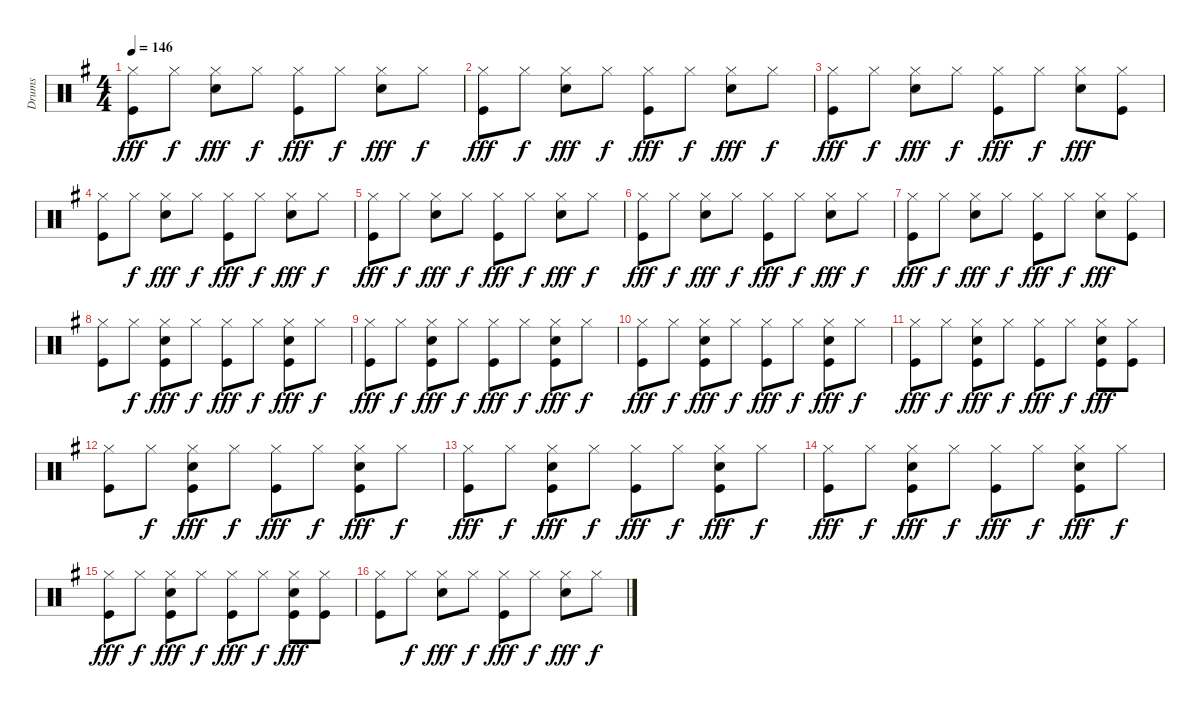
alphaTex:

\track ("Drums" "Drums") {instrument percussion}
\staff {score}
\articulation defaults
\ts (4 4)
\tempo 146
\clef neutral
\ks g
("Hi-Hat (closed)" "Kick (hit)").8{dy fff} "Hi-Hat (closed)".8{dy f} ("Hi-Hat (closed)" "Snare (hit) 2").8{dy fff} "Hi-Hat (closed)".8{dy f} ("Hi-Hat (closed)" "Kick (hit)").8{dy fff} "Hi-Hat (closed)".8{dy f} ("Hi-Hat (closed)" "Snare (hit) 2").8{dy fff} "Hi-Hat (closed)".8{dy f} |
("Hi-Hat (closed)" "Kick (hit)").8{dy fff} "Hi-Hat (closed)".8{dy f} ("Hi-Hat (closed)" "Snare (hit) 2").8{dy fff} "Hi-Hat (closed)".8{dy f} ("Hi-Hat (closed)" "Kick (hit)").8{dy fff} "Hi-Hat (closed)".8{dy f} ("Hi-Hat (closed)" "Snare (hit) 2").8{dy fff} "Hi-Hat (closed)".8{dy f} |
("Hi-Hat (closed)" "Kick (hit)").8{dy fff} "Hi-Hat (closed)".8{dy f} ("Hi-Hat (closed)" "Snare (hit) 2").8{dy fff} "Hi-Hat (closed)".8{dy f} ("Hi-Hat (closed)" "Kick (hit)").8{dy fff} "Hi-Hat (closed)".8{dy f} ("Hi-Hat (closed)" "Snare (hit) 2").8{dy fff} ("Hi-Hat (closed)" "Kick (hit)").8 |
("Hi-Hat (closed)" "Kick (hit)").8 "Hi-Hat (closed)".8{dy f} ("Hi-Hat (closed)" "Snare (hit) 2").8{dy fff} "Hi-Hat (closed)".8{dy f} ("Hi-Hat (closed)" "Kick (hit)").8{dy fff} "Hi-Hat (closed)".8{dy f} ("Hi-Hat (closed)" "Snare (hit) 2").8{dy fff} "Hi-Hat (closed)".8{dy f} |
("Hi-Hat (closed)" "Kick (hit)").8{dy fff} "Hi-Hat (closed)".8{dy f} ("Hi-Hat (closed)" "Snare (hit) 2").8{dy fff} "Hi-Hat (closed)".8{dy f} ("Hi-Hat (closed)" "Kick (hit)").8{dy fff} "Hi-Hat (closed)".8{dy f} ("Hi-Hat (closed)" "Snare (hit) 2").8{dy fff} "Hi-Hat (closed)".8{dy f} |
("Hi-Hat (closed)" "Kick (hit)").8{dy fff} "Hi-Hat (closed)".8{dy f} ("Hi-Hat (closed)" "Snare (hit) 2").8{dy fff} "Hi-Hat (closed)".8{dy f} ("Hi-Hat (closed)" "Kick (hit)").8{dy fff} "Hi-Hat (closed)".8{dy f} ("Hi-Hat (closed)" "Snare (hit) 2").8{dy fff} "Hi-Hat (closed)".8{dy f} |
("Hi-Hat (closed)" "Kick (hit)").8{dy fff} "Hi-Hat (closed)".8{dy f} ("Hi-Hat (closed)" "Snare (hit) 2").8{dy fff} "Hi-Hat (closed)".8{dy f} ("Hi-Hat (closed)" "Kick (hit)").8{dy fff} "Hi-Hat (closed)".8{dy f} ("Hi-Hat (closed)" "Snare (hit) 2").8{dy fff} ("Hi-Hat (closed)" "Kick (hit)").8 |
("Hi-Hat (closed)" "Kick (hit)").8 "Hi-Hat (closed)".8{dy f} ("Hi-Hat (closed)" "Snare (hit) 2" "Kick (hit)").8{dy fff} "Hi-Hat (closed)".8{dy f} ("Hi-Hat (closed)" "Kick (hit)").8{dy fff} "Hi-Hat (closed)".8{dy f} ("Hi-Hat (closed)" "Snare (hit) 2" "Kick (hit)").8{dy fff} "Hi-Hat (closed)".8{dy f} |
("Hi-Hat (closed)" "Kick (hit)").8{dy fff} "Hi-Hat (closed)".8{dy f} ("Hi-Hat (closed)" "Snare (hit) 2" "Kick (hit)").8{dy fff} "Hi-Hat (closed)".8{dy f} ("Hi-Hat (closed)" "Kick (hit)").8{dy fff} "Hi-Hat (closed)".8{dy f} ("Hi-Hat (closed)" "Snare (hit) 2" "Kick (hit)").8{dy fff} "Hi-Hat (closed)".8{dy f} |
("Hi-Hat (closed)" "Kick (hit)").8{dy fff} "Hi-Hat (closed)".8{dy f} ("Hi-Hat (closed)" "Snare (hit) 2" "Kick (hit)").8{dy fff} "Hi-Hat (closed)".8{dy f} ("Hi-Hat (closed)" "Kick (hit)").8{dy fff} "Hi-Hat (closed)".8{dy f} ("Hi-Hat (closed)" "Snare (hit) 2" "Kick (hit)").8{dy fff} "Hi-Hat (closed)".8{dy f} |
("Hi-Hat (closed)" "Kick (hit)").8{dy fff} "Hi-Hat (closed)".8{dy f} ("Hi-Hat (closed)" "Snare (hit) 2" "Kick (hit)").8{dy fff} "Hi-Hat (closed)".8{dy f} ("Hi-Hat (closed)" "Kick (hit)").8{dy fff} "Hi-Hat (closed)".8{dy f} ("Hi-Hat (closed)" "Snare (hit) 2" "Kick (hit)").8{dy fff} ("Hi-Hat (closed)" "Kick (hit)").8 |
("Hi-Hat (closed)" "Kick (hit)").8 "Hi-Hat (closed)".8{dy f} ("Hi-Hat (closed)" "Snare (hit) 2" "Kick (hit)").8{dy fff} "Hi-Hat (closed)".8{dy f} ("Hi-Hat (closed)" "Kick (hit)").8{dy fff} "Hi-Hat (closed)".8{dy f} ("Hi-Hat (closed)" "Snare (hit) 2" "Kick (hit)").8{dy fff} "Hi-Hat (closed)".8{dy f} |
("Hi-Hat (closed)" "Kick (hit)").8{dy fff} "Hi-Hat (closed)".8{dy f} ("Hi-Hat (closed)" "Snare (hit) 2" "Kick (hit)").8{dy fff} "Hi-Hat (closed)".8{dy f} ("Hi-Hat (closed)" "Kick (hit)").8{dy fff} "Hi-Hat (closed)".8{dy f} ("Hi-Hat (closed)" "Snare (hit) 2" "Kick (hit)").8{dy fff} "Hi-Hat (closed)".8{dy f} |
("Hi-Hat (closed)" "Kick (hit)").8{dy fff} "Hi-Hat (closed)".8{dy f} ("Hi-Hat (closed)" "Snare (hit) 2" "Kick (hit)").8{dy fff} "Hi-Hat (closed)".8{dy f} ("Hi-Hat (closed)" "Kick (hit)").8{dy fff} "Hi-Hat (closed)".8{dy f} ("Hi-Hat (closed)" "Snare (hit) 2" "Kick (hit)").8{dy fff} "Hi-Hat (closed)".8{dy f} |
("Hi-Hat (closed)" "Kick (hit)").8{dy fff} "Hi-Hat (closed)".8{dy f} ("Hi-Hat (closed)" "Snare (hit) 2" "Kick (hit)").8{dy fff} "Hi-Hat (closed)".8{dy f} ("Hi-Hat (closed)" "Kick (hit)").8{dy fff} "Hi-Hat (closed)".8{dy f} ("Hi-Hat (closed)" "Snare (hit) 2" "Kick (hit)").8{dy fff} ("Hi-Hat (closed)" "Kick (hit)").8 |
("Hi-Hat (closed)" "Kick (hit)").8 "Hi-Hat (closed)".8{dy f} ("Hi-Hat (closed)" "Snare (hit) 2").8{dy fff} "Hi-Hat (closed)".8{dy f} ("Hi-Hat (closed)" "Kick (hit)").8{dy fff} "Hi-Hat (closed)".8{dy f} ("Hi-Hat (closed)" "Snare (hit) 2").8{dy fff} "Hi-Hat (closed)".8{dy f}
